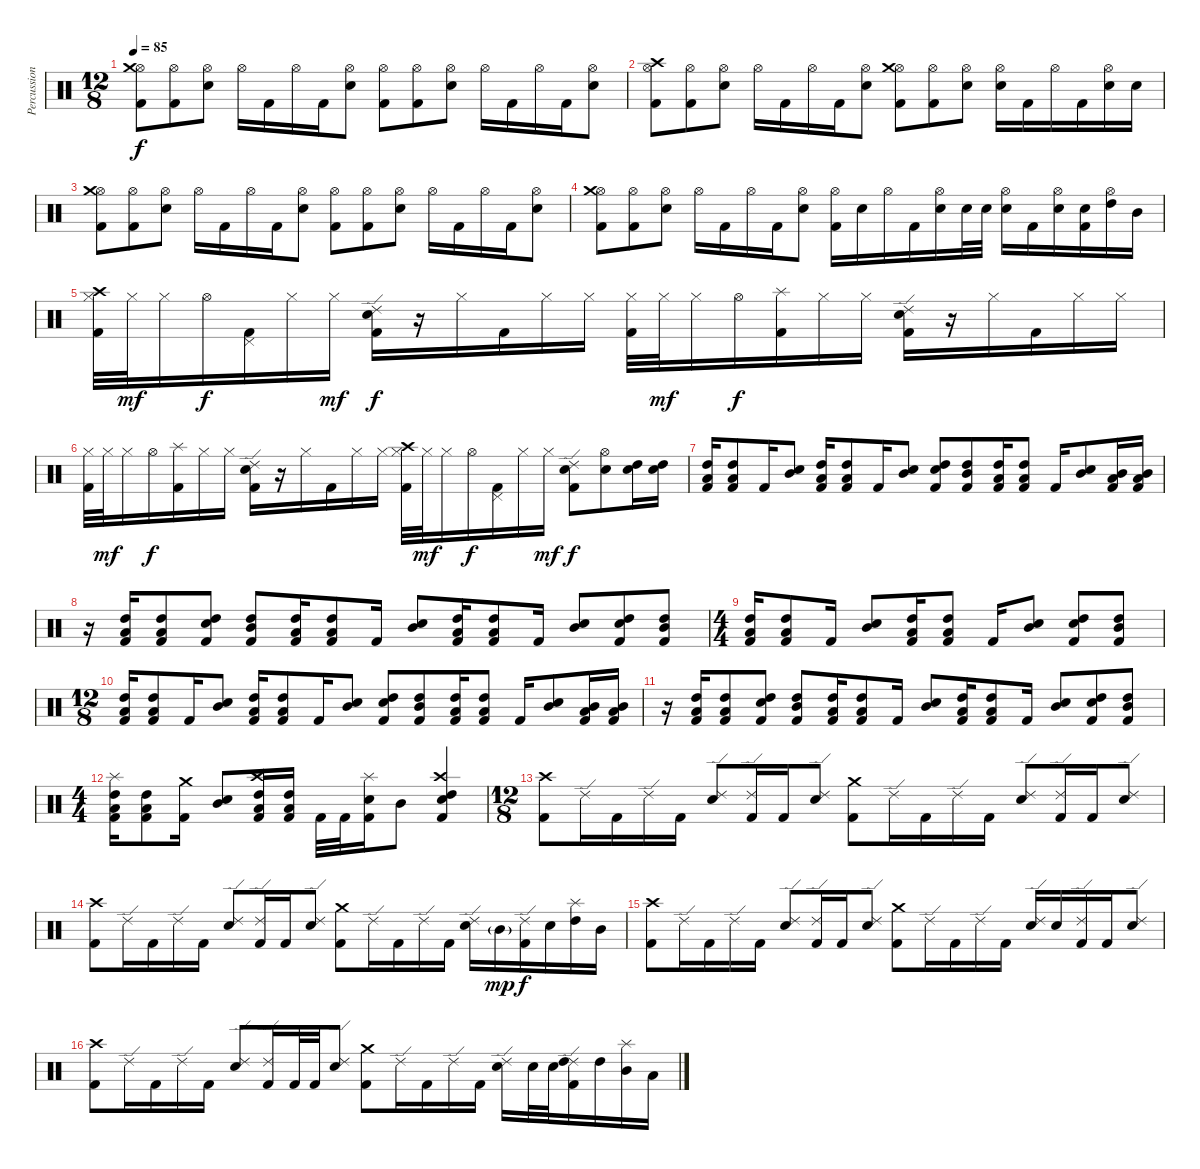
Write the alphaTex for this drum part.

\track ("Percussion" "Percussion") {instrument percussion}
\staff {score}
\articulation defaults
\ts (12 8)
\tempo 85
\clef neutral
\ks c
("Hi-Hat (open)" "Crash medium (hit)" "Kick (hit) 2").8{dy f} ("Hi-Hat (open)" "Kick (hit) 2").8 ("Hi-Hat (open)" "Snare (hit) 2").8 "Hi-Hat (open)".16 "Kick (hit) 2".16 "Hi-Hat (open)".16 "Kick (hit) 2".16 ("Hi-Hat (open)" "Snare (hit) 2").8 ("Hi-Hat (open)" "Kick (hit) 2").8 ("Hi-Hat (open)" "Kick (hit) 2").8 ("Hi-Hat (open)" "Snare (hit) 2").8 "Hi-Hat (open)".16 "Kick (hit) 2".16 "Hi-Hat (open)".16 "Kick (hit) 2".16 ("Hi-Hat (open)" "Snare (hit) 2").8 |
("Hi-Hat (open)" "Crash high (hit)" "Kick (hit) 2").8 ("Hi-Hat (open)" "Kick (hit) 2").8 ("Hi-Hat (open)" "Snare (hit) 2").8 "Hi-Hat (open)".16 "Kick (hit) 2".16 "Hi-Hat (open)".16 "Kick (hit) 2".16 ("Hi-Hat (open)" "Snare (hit) 2").8 ("Hi-Hat (open)" "Crash medium (hit)" "Kick (hit) 2").8 ("Hi-Hat (open)" "Kick (hit) 2").8 ("Hi-Hat (open)" "Snare (hit) 2").8 ("Hi-Hat (open)" "Snare (hit) 2").16 "Kick (hit) 2".16 "Hi-Hat (open)".16 "Kick (hit) 2".16 ("Hi-Hat (open)" "Snare (hit) 2").16 "Snare (hit) 2".16 |
("Hi-Hat (open)" "Crash medium (hit)" "Kick (hit) 2").8 ("Hi-Hat (open)" "Kick (hit) 2").8 ("Hi-Hat (open)" "Snare (hit) 2").8 "Hi-Hat (open)".16 "Kick (hit) 2".16 "Hi-Hat (open)".16 "Kick (hit) 2".16 ("Hi-Hat (open)" "Snare (hit) 2").8 ("Hi-Hat (open)" "Kick (hit) 2").8 ("Hi-Hat (open)" "Kick (hit) 2").8 ("Hi-Hat (open)" "Snare (hit) 2").8 "Hi-Hat (open)".16 "Kick (hit) 2".16 "Hi-Hat (open)".16 "Kick (hit) 2".16 ("Hi-Hat (open)" "Snare (hit) 2").8 |
("Hi-Hat (open)" "Crash medium (hit)" "Kick (hit) 2").8 ("Hi-Hat (open)" "Kick (hit) 2").8 ("Hi-Hat (open)" "Snare (hit) 2").8 "Hi-Hat (open)".16 "Kick (hit) 2".16 "Hi-Hat (open)".16 "Kick (hit) 2".16 ("Hi-Hat (open)" "Snare (hit) 2").8 ("Hi-Hat (open)" "Kick (hit) 2").16 "Snare (hit) 2".16 "Hi-Hat (open)".16 "Kick (hit) 2".16 ("Hi-Hat (open)" "Snare (hit) 2").16 "Snare (hit) 2".32 "Snare (hit) 2".32 ("Hi-Hat (open)" "Snare (hit) 2").16 "Kick (hit) 2".16 ("Hi-Hat (open)" "Snare (hit) 2").16 ("Snare (hit) 2" "Kick (hit) 2").16 ("Hi-Hat (open)" "High Tom (hit)").16 "Mid Tom (hit)".16 |
("Hi-Hat (closed)" "Crash high (hit)" "Kick (hit) 2").32 "Hi-Hat (closed)".32{dy mf} "Hi-Hat (closed)".16 "Hi-Hat (open)".16{dy f} ("Pedal Hi-Hat (hit)" "Kick (hit) 2").16 "Hi-Hat (closed)".16 "Hi-Hat (closed)".16{dy mf} ("Ride (edge) 2" "Snare (hit) 2" "Kick (hit) 2").16{dy f} r.16 "Hi-Hat (closed)".16 "Kick (hit) 2".16 "Hi-Hat (closed)".16 "Hi-Hat (closed)".16 ("Hi-Hat (closed)" "Kick (hit) 2").32 "Hi-Hat (closed)".32{dy mf} "Hi-Hat (closed)".16 "Hi-Hat (open)".16{dy f} ("Splash (hit)" "Kick (hit) 2").16 "Hi-Hat (closed)".16 "Hi-Hat (closed)".16 ("Ride (edge) 2" "Snare (hit) 2" "Kick (hit) 2").16 r.16 "Hi-Hat (closed)".16 "Kick (hit) 2".16 "Hi-Hat (closed)".16 "Hi-Hat (closed)".16 |
("Hi-Hat (closed)" "Kick (hit) 2").32 "Hi-Hat (closed)".32{dy mf} "Hi-Hat (closed)".16 "Hi-Hat (open)".16{dy f} ("Splash (hit)" "Kick (hit) 2").16 "Hi-Hat (closed)".16 "Hi-Hat (closed)".16 ("Ride (edge) 2" "Snare (hit) 2" "Kick (hit) 2").16 r.16 "Hi-Hat (closed)".16 "Kick (hit) 2".16 "Hi-Hat (closed)".16 "Hi-Hat (closed)".16 ("Hi-Hat (closed)" "Crash high (hit)" "Kick (hit) 2").32 "Hi-Hat (closed)".32{dy mf} "Hi-Hat (closed)".16 "Hi-Hat (open)".16{dy f} ("Pedal Hi-Hat (hit)" "Kick (hit) 2").16 "Hi-Hat (closed)".16 "Hi-Hat (closed)".16{dy mf} ("Ride (edge) 2" "Snare (hit) 2" "Kick (hit) 2").8{dy f} ("Hi-Hat (open)" "Snare (hit) 2").8 ("Snare (hit) 2" "High Tom (hit)").16 ("Snare (hit) 2" "High Tom (hit)").16 |
("High Tom (hit)" "Low Tom (hit)" "Kick (hit) 2").16 ("High Tom (hit)" "Low Tom (hit)" "Kick (hit) 2").8 "Kick (hit) 2".16 ("Snare (hit) 2" "Mid Tom (hit)").8 ("High Tom (hit)" "Low Tom (hit)" "Kick (hit) 2").16 ("High Tom (hit)" "Low Tom (hit)" "Kick (hit) 2").8 "Kick (hit) 2".16 ("Snare (hit) 2" "Mid Tom (hit)").8 ("Snare (hit) 2" "High Tom (hit)" "Kick (hit) 2").8 ("High Tom (hit)" "Mid Tom (hit)" "Kick (hit) 2").8 ("High Tom (hit)" "Low Tom (hit)" "Kick (hit) 2").16 ("High Tom (hit)" "Low Tom (hit)" "Kick (hit) 2").8 "Kick (hit) 2".16 ("Snare (hit) 2" "Mid Tom (hit)").8 ("Mid Tom (hit)" "Low Tom (hit)" "Kick (hit) 2").16 ("Mid Tom (hit)" "Low Tom (hit)" "Kick (hit) 2").16 |
r.16 ("High Tom (hit)" "Low Tom (hit)" "Kick (hit) 2").16 ("High Tom (hit)" "Low Tom (hit)" "Kick (hit) 2").8 ("Snare (hit) 2" "High Tom (hit)" "Kick (hit) 2").8 ("High Tom (hit)" "Mid Tom (hit)" "Kick (hit) 2").8 ("High Tom (hit)" "Low Tom (hit)" "Kick (hit) 2").16 ("High Tom (hit)" "Low Tom (hit)" "Kick (hit) 2").8 "Kick (hit) 2".16 ("Snare (hit) 2" "Mid Tom (hit)").8 ("High Tom (hit)" "Low Tom (hit)" "Kick (hit) 2").16 ("High Tom (hit)" "Low Tom (hit)" "Kick (hit) 2").8 "Kick (hit) 2".16 ("Snare (hit) 2" "Mid Tom (hit)").8 ("Snare (hit) 2" "High Tom (hit)" "Kick (hit) 2").8 ("High Tom (hit)" "Mid Tom (hit)" "Kick (hit) 2").8 |
\ts (4 4)
("High Tom (hit)" "Low Tom (hit)" "Kick (hit) 2").16 ("High Tom (hit)" "Low Tom (hit)" "Kick (hit) 2").8 "Kick (hit) 2".16 ("Snare (hit) 2" "Mid Tom (hit)").8 ("High Tom (hit)" "Low Tom (hit)" "Kick (hit) 2").16 ("High Tom (hit)" "Low Tom (hit)" "Kick (hit) 2").8 "Kick (hit) 2".16 ("Snare (hit) 2" "Mid Tom (hit)").8 ("Snare (hit) 2" "High Tom (hit)" "Kick (hit) 2").8 ("High Tom (hit)" "Mid Tom (hit)" "Kick (hit) 2").8 |
\ts (12 8)
("High Tom (hit)" "Low Tom (hit)" "Kick (hit) 2").16 ("High Tom (hit)" "Low Tom (hit)" "Kick (hit) 2").8 "Kick (hit) 2".16 ("Snare (hit) 2" "Mid Tom (hit)").8 ("High Tom (hit)" "Low Tom (hit)" "Kick (hit) 2").16 ("High Tom (hit)" "Low Tom (hit)" "Kick (hit) 2").8 "Kick (hit) 2".16 ("Snare (hit) 2" "Mid Tom (hit)").8 ("Snare (hit) 2" "High Tom (hit)" "Kick (hit) 2").8 ("High Tom (hit)" "Mid Tom (hit)" "Kick (hit) 2").8 ("High Tom (hit)" "Low Tom (hit)" "Kick (hit) 2").16 ("High Tom (hit)" "Low Tom (hit)" "Kick (hit) 2").8 "Kick (hit) 2".16 ("Snare (hit) 2" "Mid Tom (hit)").8 ("Mid Tom (hit)" "Low Tom (hit)" "Kick (hit) 2").16 ("Mid Tom (hit)" "Low Tom (hit)" "Kick (hit) 2").16 |
r.16 ("High Tom (hit)" "Low Tom (hit)" "Kick (hit) 2").16 ("High Tom (hit)" "Low Tom (hit)" "Kick (hit) 2").8 ("Snare (hit) 2" "High Tom (hit)" "Kick (hit) 2").8 ("High Tom (hit)" "Mid Tom (hit)" "Kick (hit) 2").8 ("High Tom (hit)" "Low Tom (hit)" "Kick (hit) 2").16 ("High Tom (hit)" "Low Tom (hit)" "Kick (hit) 2").8 "Kick (hit) 2".16 ("Snare (hit) 2" "Mid Tom (hit)").8 ("High Tom (hit)" "Low Tom (hit)" "Kick (hit) 2").16 ("High Tom (hit)" "Low Tom (hit)" "Kick (hit) 2").8 "Kick (hit) 2".16 ("Snare (hit) 2" "Mid Tom (hit)").8 ("Snare (hit) 2" "High Tom (hit)" "Kick (hit) 2").8 ("High Tom (hit)" "Mid Tom (hit)" "Kick (hit) 2").8 |
\ts (4 4)
("Splash (hit)" "High Tom (hit)" "Low Tom (hit)" "Kick (hit) 2").16 ("High Tom (hit)" "Low Tom (hit)" "Kick (hit) 2").8 ("Crash medium (hit)" "Kick (hit) 2").16 ("Snare (hit) 2" "Mid Tom (hit)").8 ("Crash high (hit)" "High Tom (hit)" "Low Tom (hit)" "Kick (hit) 2").16 ("High Tom (hit)" "Low Tom (hit)" "Kick (hit) 2").16 "Kick (hit) 2".32 "Kick (hit) 2".32 ("Splash (hit)" "Snare (hit) 2" "Kick (hit) 2").16 "Mid Tom (hit)".8 ("Crash high (hit)" "Snare (hit) 2" "High Tom (hit)" "Kick (hit) 2").4 |
\ts (12 8)
("Crash high (hit)" "Kick (hit) 2").8 "Ride (edge) 2".16 "Kick (hit) 2".16 "Ride (edge) 2".16 "Kick (hit) 2".16 ("Ride (edge) 2" "Snare (hit) 2").8 ("Ride (edge) 2" "Kick (hit) 2").16 "Kick (hit) 2".16 ("Ride (edge) 2" "Snare (hit) 2").8 ("Crash medium (hit)" "Kick (hit) 2").8 "Ride (edge) 2".16 "Kick (hit) 2".16 "Ride (edge) 2".16 "Kick (hit) 2".16 ("Ride (edge) 2" "Snare (hit) 2").8 ("Ride (edge) 2" "Kick (hit) 2").16 "Kick (hit) 2".16 ("Ride (edge) 2" "Snare (hit) 2").8 |
("Crash high (hit)" "Kick (hit) 2").8 "Ride (edge) 2".16 "Kick (hit) 2".16 "Ride (edge) 2".16 "Kick (hit) 2".16 ("Ride (edge) 2" "Snare (hit) 2").8 ("Ride (edge) 2" "Kick (hit) 2").16 "Kick (hit) 2".16 ("Ride (edge) 2" "Snare (hit) 2").8 ("Crash medium (hit)" "Kick (hit) 2").8 "Ride (edge) 2".16 "Kick (hit) 2".16 "Ride (edge) 2".16 "Kick (hit) 2".16 ("Ride (edge) 2" "Snare (hit) 2").16 "Mid Tom (hit)"{g}.16{dy mp} ("Ride (edge) 2" "Kick (hit) 2").16{dy f} "Snare (hit) 2".16 ("Splash (hit)" "High Tom (hit)").16 "Mid Tom (hit)".16 |
("Crash high (hit)" "Kick (hit) 2").8 "Ride (edge) 2".16 "Kick (hit) 2".16 "Ride (edge) 2".16 "Kick (hit) 2".16 ("Ride (edge) 2" "Snare (hit) 2").8 ("Ride (edge) 2" "Kick (hit) 2").16 "Kick (hit) 2".16 ("Ride (edge) 2" "Snare (hit) 2").8 ("Crash medium (hit)" "Kick (hit) 2").8 "Ride (edge) 2".16 "Kick (hit) 2".16 "Ride (edge) 2".16 "Kick (hit) 2".16 ("Ride (edge) 2" "Snare (hit) 2").16 "Snare (hit) 2".16 ("Ride (edge) 2" "Kick (hit) 2").16 "Kick (hit) 2".16 ("Ride (edge) 2" "Snare (hit) 2").8 |
("Crash high (hit)" "Kick (hit) 2").8 "Ride (edge) 2".16 "Kick (hit) 2".16 "Ride (edge) 2".16 "Kick (hit) 2".16 ("Ride (edge) 2" "Snare (hit) 2").8 ("Ride (edge) 2" "Kick (hit) 2").16 "Kick (hit) 2".32 "Kick (hit) 2".32 ("Ride (edge) 2" "Snare (hit) 2").8 ("Crash medium (hit)" "Kick (hit) 2").8 "Ride (edge) 2".16 "Kick (hit) 2".16 "Ride (edge) 2".16 "Kick (hit) 2".16 ("Ride (edge) 2" "Snare (hit) 2").16 "Snare (hit) 2".32 "Snare (hit) 2".32 ("Ride (edge) 2" "High Tom (hit)" "Kick (hit) 2").16 "High Tom (hit)".16 ("Splash (hit)" "Mid Tom (hit)").16 "Low Tom (hit)".16
